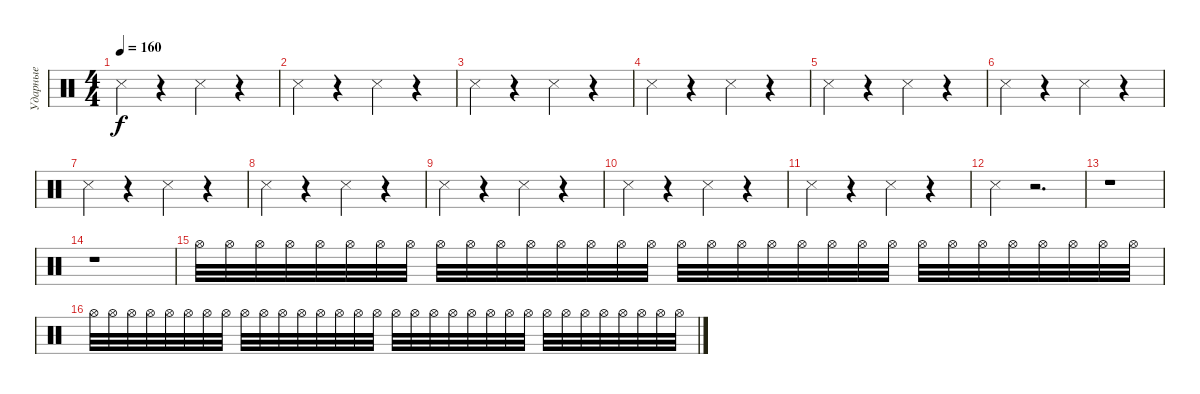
\track ("Ударные" "Ударные") {instrument percussion}
\staff
\articulation defaults
\ts (4 4)
\tempo 160
\clef neutral
\ks c "Snare (side stick) 3".4{dy f}
r.4 "Snare (side stick) 3".4 r.4 |
"Snare (side stick) 3".4 r.4 "Snare (side stick) 3".4 r.4 |
"Snare (side stick) 3".4 r.4 "Snare (side stick) 3".4 r.4 |
"Snare (side stick) 3".4 r.4 "Snare (side stick) 3".4 r.4 |
"Snare (side stick) 3".4 r.4 "Snare (side stick) 3".4 r.4 |
"Snare (side stick) 3".4 r.4 "Snare (side stick) 3".4 r.4 |
"Snare (side stick) 3".4 r.4 "Snare (side stick) 3".4 r.4 |
"Snare (side stick) 3".4 r.4 "Snare (side stick) 3".4 r.4 |
"Snare (side stick) 3".4 r.4 "Snare (side stick) 3".4 r.4 |
"Snare (side stick) 3".4 r.4 "Snare (side stick) 3".4 r.4 |
"Snare (side stick) 3".4 r.4 "Snare (side stick) 3".4 r.4 |
"Snare (side stick) 3".4 r.2{d} |
r.1 |
r.1{volume 1} |
"Hi-Hat (open)".32{volume 9} "Hi-Hat (open)".32 "Hi-Hat (open)".32 "Hi-Hat (open)".32 "Hi-Hat (open)".32 "Hi-Hat (open)".32 "Hi-Hat (open)".32 "Hi-Hat (open)".32 "Hi-Hat (open)".32 "Hi-Hat (open)".32 "Hi-Hat (open)".32 "Hi-Hat (open)".32 "Hi-Hat (open)".32 "Hi-Hat (open)".32 "Hi-Hat (open)".32 "Hi-Hat (open)".32 "Hi-Hat (open)".32 "Hi-Hat (open)".32 "Hi-Hat (open)".32 "Hi-Hat (open)".32 "Hi-Hat (open)".32 "Hi-Hat (open)".32 "Hi-Hat (open)".32 "Hi-Hat (open)".32 "Hi-Hat (open)".32 "Hi-Hat (open)".32 "Hi-Hat (open)".32 "Hi-Hat (open)".32 "Hi-Hat (open)".32 "Hi-Hat (open)".32 "Hi-Hat (open)".32 "Hi-Hat (open)".32 |
"Hi-Hat (open)".32 "Hi-Hat (open)".32 "Hi-Hat (open)".32 "Hi-Hat (open)".32 "Hi-Hat (open)".32 "Hi-Hat (open)".32 "Hi-Hat (open)".32 "Hi-Hat (open)".32 "Hi-Hat (open)".32 "Hi-Hat (open)".32 "Hi-Hat (open)".32 "Hi-Hat (open)".32 "Hi-Hat (open)".32 "Hi-Hat (open)".32 "Hi-Hat (open)".32 "Hi-Hat (open)".32 "Hi-Hat (open)".32{volume 0} "Hi-Hat (open)".32 "Hi-Hat (open)".32 "Hi-Hat (open)".32 "Hi-Hat (open)".32 "Hi-Hat (open)".32 "Hi-Hat (open)".32 "Hi-Hat (open)".32 "Hi-Hat (open)".32 "Hi-Hat (open)".32 "Hi-Hat (open)".32 "Hi-Hat (open)".32 "Hi-Hat (open)".32 "Hi-Hat (open)".32 "Hi-Hat (open)".32 "Hi-Hat (open)".32
